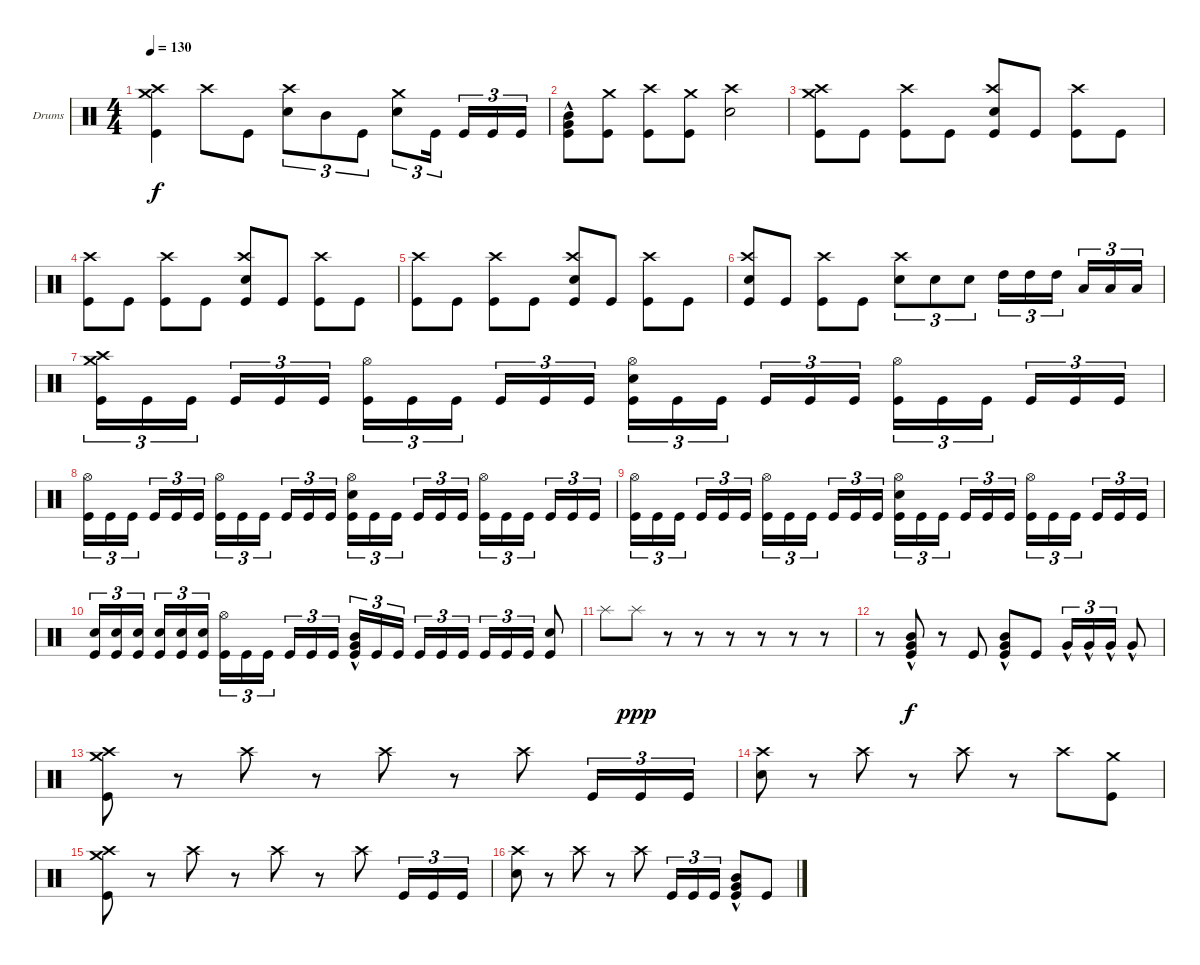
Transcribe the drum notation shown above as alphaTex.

\bracketExtendMode groupsimilarinstruments
\firstSystemTrackNameOrientation horizontal
\otherSystemsTrackNameOrientation horizontal
\track ("Drumkit" "Drums") {instrument percussion}
\staff {score}
\articulation defaults
\ts (4 4)
\tempo 130
\clef neutral
\ks c
("Kick (hit)" "Crash medium (hit)" "Crash high (hit)").4{dy f} "Crash high (hit)".8 "Kick (hit)".8 ("Snare (hit) 2" "Crash high (hit)").8{tu (3 2)} "Mid Tom (hit)".8{tu (3 2)} "Kick (hit)".8{tu (3 2)} ("Snare (hit) 2" "Crash medium (hit)").8{tu (3 2)} "Kick (hit)".16{tu (3 2)} "Kick (hit)".16{tu (3 2)} "Kick (hit)".16{tu (3 2)} "Kick (hit)".16{tu (3 2)} |
("Mid Tom (hit)"{hac} "Very Low Tom (hit)"{hac} "Kick (hit)").8 ("Kick (hit)" "Crash medium (hit)").8 ("Crash high (hit)" "Kick (hit)").8 ("Kick (hit)" "Crash medium (hit)").8 ("Snare (hit) 2" "Crash high (hit)").2 |
("Kick (hit)" "Crash high (hit)" "Crash medium (hit)").8 "Kick (hit)".8 ("Kick (hit)" "Crash high (hit)").8 "Kick (hit)".8 ("Kick (hit)" "Crash high (hit)" "Snare (hit) 2").8 "Kick (hit)".8 ("Kick (hit)" "Crash high (hit)").8 "Kick (hit)".8 |
("Kick (hit)" "Crash high (hit)").8 "Kick (hit)".8 ("Kick (hit)" "Crash high (hit)").8 "Kick (hit)".8 ("Kick (hit)" "Crash high (hit)" "Snare (hit) 2").8 "Kick (hit)".8 ("Kick (hit)" "Crash high (hit)").8 "Kick (hit)".8 |
\scale
0.225686 ("Kick (hit)" "Crash high (hit)").8 "Kick (hit)".8 ("Kick (hit)" "Crash high (hit)").8 "Kick (hit)".8 ("Kick (hit)" "Crash high (hit)" "Snare (hit) 2").8 "Kick (hit)".8 ("Kick (hit)" "Crash high (hit)").8 "Kick (hit)".8 |
\scale
0.325436 ("Kick (hit)" "Crash high (hit)" "Snare (hit) 2").8 "Kick (hit)".8 ("Kick (hit)" "Crash high (hit)").8 "Kick (hit)".8 ("Snare (hit) 2" "Crash high (hit)").8{tu (3 2)} "Snare (hit) 2".8{tu (3 2)} "Snare (hit) 2".8{tu (3 2)} "High Tom (hit)".16{tu (3 2)} "High Tom (hit)".16{tu (3 2)} "High Tom (hit)".16{tu (3 2)} "Low Tom (hit)".16{tu (3 2)} "Low Tom (hit)".16{tu (3 2)} "Low Tom (hit)".16{tu (3 2)} |
\scale
0.448878 ("Kick (hit)" "Crash high (hit)" "Crash medium (hit)").16{tu (3 2)} "Kick (hit)".16{tu (3 2)} "Kick (hit)".16{tu (3 2)} "Kick (hit)".16{tu (3 2)} "Kick (hit)".16{tu (3 2)} "Kick (hit)".16{tu (3 2)} ("Kick (hit)" "Hi-Hat (open)").16{tu (3 2)} "Kick (hit)".16{tu (3 2)} "Kick (hit)".16{tu (3 2)} "Kick (hit)".16{tu (3 2)} "Kick (hit)".16{tu (3 2)} "Kick (hit)".16{tu (3 2)} ("Kick (hit)" "Hi-Hat (open)" "Snare (hit) 2").16{tu (3 2)} "Kick (hit)".16{tu (3 2)} "Kick (hit)".16{tu (3 2)} "Kick (hit)".16{tu (3 2)} "Kick (hit)".16{tu (3 2)} "Kick (hit)".16{tu (3 2)} ("Kick (hit)" "Hi-Hat (open)").16{tu (3 2)} "Kick (hit)".16{tu (3 2)} "Kick (hit)".16{tu (3 2)} "Kick (hit)".16{tu (3 2)} "Kick (hit)".16{tu (3 2)} "Kick (hit)".16{tu (3 2)} |
\scale
0.345422 ("Kick (hit)" "Hi-Hat (open)").16{tu (3 2)} "Kick (hit)".16{tu (3 2)} "Kick (hit)".16{tu (3 2)} "Kick (hit)".16{tu (3 2)} "Kick (hit)".16{tu (3 2)} "Kick (hit)".16{tu (3 2)} ("Kick (hit)" "Hi-Hat (open)").16{tu (3 2)} "Kick (hit)".16{tu (3 2)} "Kick (hit)".16{tu (3 2)} "Kick (hit)".16{tu (3 2)} "Kick (hit)".16{tu (3 2)} "Kick (hit)".16{tu (3 2)} ("Kick (hit)" "Hi-Hat (open)" "Snare (hit) 2").16{tu (3 2)} "Kick (hit)".16{tu (3 2)} "Kick (hit)".16{tu (3 2)} "Kick (hit)".16{tu (3 2)} "Kick (hit)".16{tu (3 2)} "Kick (hit)".16{tu (3 2)} ("Kick (hit)" "Hi-Hat (open)").16{tu (3 2)} "Kick (hit)".16{tu (3 2)} "Kick (hit)".16{tu (3 2)} "Kick (hit)".16{tu (3 2)} "Kick (hit)".16{tu (3 2)} "Kick (hit)".16{tu (3 2)} |
\scale
0.326383 ("Kick (hit)" "Hi-Hat (open)").16{tu (3 2)} "Kick (hit)".16{tu (3 2)} "Kick (hit)".16{tu (3 2)} "Kick (hit)".16{tu (3 2)} "Kick (hit)".16{tu (3 2)} "Kick (hit)".16{tu (3 2)} ("Kick (hit)" "Hi-Hat (open)").16{tu (3 2)} "Kick (hit)".16{tu (3 2)} "Kick (hit)".16{tu (3 2)} "Kick (hit)".16{tu (3 2)} "Kick (hit)".16{tu (3 2)} "Kick (hit)".16{tu (3 2)} ("Kick (hit)" "Hi-Hat (open)" "Snare (hit) 2").16{tu (3 2)} "Kick (hit)".16{tu (3 2)} "Kick (hit)".16{tu (3 2)} "Kick (hit)".16{tu (3 2)} "Kick (hit)".16{tu (3 2)} "Kick (hit)".16{tu (3 2)} ("Kick (hit)" "Hi-Hat (open)").16{tu (3 2)} "Kick (hit)".16{tu (3 2)} "Kick (hit)".16{tu (3 2)} "Kick (hit)".16{tu (3 2)} "Kick (hit)".16{tu (3 2)} "Kick (hit)".16{tu (3 2)} |
\scale
0.328196 ("Snare (hit) 2" "Kick (hit)").16{tu (3 2)} ("Snare (hit) 2" "Kick (hit)").16{tu (3 2)} ("Snare (hit) 2" "Kick (hit)").16{tu (3 2)} ("Snare (hit) 2" "Kick (hit)").16{tu (3 2)} ("Snare (hit) 2" "Kick (hit)").16{tu (3 2)} ("Snare (hit) 2" "Kick (hit)").16{tu (3 2)} ("Kick (hit)" "Hi-Hat (open)").16{tu (3 2)} "Kick (hit)".16{tu (3 2)} "Kick (hit)".16{tu (3 2)} "Kick (hit)".16{tu (3 2)} "Kick (hit)".16{tu (3 2)} "Kick (hit)".16{tu (3 2)} ("Mid Tom (hit)"{hac} "Very Low Tom (hit)"{hac} "Kick (hit)").16{tu (3 2)} "Kick (hit)".16{tu (3 2)} "Kick (hit)".16{tu (3 2)} "Kick (hit)".16{tu (3 2)} "Kick (hit)".16{tu (3 2)} "Kick (hit)".16{tu (3 2)} "Kick (hit)".16{tu (3 2)} "Kick (hit)".16{tu (3 2)} "Kick (hit)".16{tu (3 2)} ("Kick (hit)" "Snare (hit) 2").8 |
"Splash (hit)".8 "Splash (hit)".8{dy ppp} r.8 r.8 r.8 r.8 r.8 r.8 |
r.8 ("Mid Tom (hit)"{hac} "Very Low Tom (hit)"{hac} "Kick (hit)").8{dy f} r.8 "Kick (hit)".8 ("Mid Tom (hit)"{hac} "Very Low Tom (hit)"{hac} "Kick (hit)").8 "Kick (hit)".8 "Very Low Tom (hit)"{hac}.16{tu (3 2)} "Very Low Tom (hit)"{hac}.16{tu (3 2)} "Very Low Tom (hit)"{hac}.16{tu (3 2)} "Very Low Tom (hit)"{hac}.8 |
("Kick (hit)" "Crash medium (hit)" "Crash high (hit)").8 r.8 "Crash high (hit)".8 r.8 "Crash high (hit)".8 r.8 "Crash high (hit)".8 "Kick (hit)".16{tu (3 2)} "Kick (hit)".16{tu (3 2)} "Kick (hit)".16{tu (3 2)} |
("Snare (hit) 2" "Crash high (hit)").8 r.8 "Crash high (hit)".8 r.8 "Crash high (hit)".8 r.8 "Crash high (hit)".8 ("Kick (hit)" "Crash medium (hit)").8 |
("Kick (hit)" "Crash medium (hit)" "Crash high (hit)").8 r.8 "Crash high (hit)".8 r.8 "Crash high (hit)".8 r.8 "Crash high (hit)".8 "Kick (hit)".16{tu (3 2)} "Kick (hit)".16{tu (3 2)} "Kick (hit)".16{tu (3 2)} |
("Snare (hit) 2" "Crash high (hit)").8 r.8 "Crash high (hit)".8 r.8 "Crash high (hit)".8 "Kick (hit)".16{tu (3 2)} "Kick (hit)".16{tu (3 2)} "Kick (hit)".16{tu (3 2)} ("Mid Tom (hit)"{hac} "Very Low Tom (hit)"{hac} "Kick (hit)").8 "Kick (hit)".8
